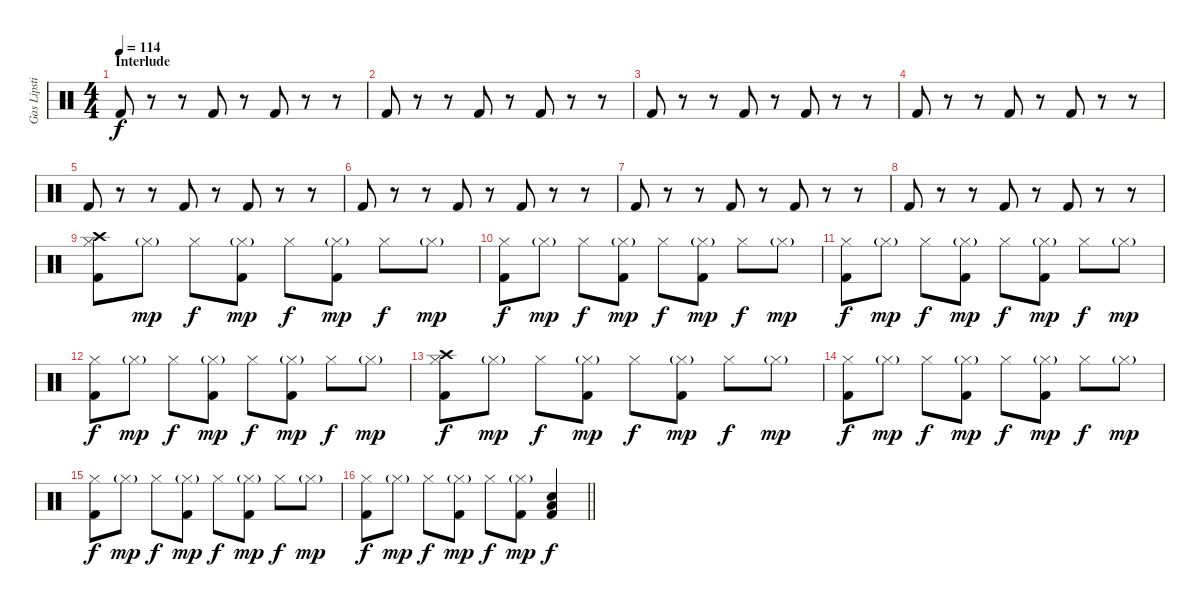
\track ("Gas Lipstick (Drums)" "Gas Lipsti") {instrument percussion}
\staff {score}
\articulation defaults
\ts (4 4)
\section ("" "Interlude")
\tempo 114
\clef neutral
\ks c "Kick (hit) 2".8{dy f}
r.8 r.8 "Kick (hit) 2".8 r.8 "Kick (hit) 2".8 r.8 r.8 |
"Kick (hit) 2".8 r.8 r.8 "Kick (hit) 2".8 r.8 "Kick (hit) 2".8 r.8 r.8 |
"Kick (hit) 2".8 r.8 r.8 "Kick (hit) 2".8 r.8 "Kick (hit) 2".8 r.8 r.8 |
"Kick (hit) 2".8 r.8 r.8 "Kick (hit) 2".8 r.8 "Kick (hit) 2".8 r.8 r.8 |
"Kick (hit) 2".8 r.8 r.8 "Kick (hit) 2".8 r.8 "Kick (hit) 2".8 r.8 r.8 |
"Kick (hit) 2".8 r.8 r.8 "Kick (hit) 2".8 r.8 "Kick (hit) 2".8 r.8 r.8 |
"Kick (hit) 2".8 r.8 r.8 "Kick (hit) 2".8 r.8 "Kick (hit) 2".8 r.8 r.8 |
"Kick (hit) 2".8 r.8 r.8 "Kick (hit) 2".8 r.8 "Kick (hit) 2".8 r.8 r.8 |
("Crash high (hit)" "Hi-Hat (closed)" "Kick (hit) 2").8 "Hi-Hat (closed)"{g}.8{dy mp} "Hi-Hat (closed)".8{dy f} ("Hi-Hat (closed)"{g} "Kick (hit) 2").8{dy mp} "Hi-Hat (closed)".8{dy f} ("Hi-Hat (closed)"{g} "Kick (hit) 2").8{dy mp} "Hi-Hat (closed)".8{dy f} "Hi-Hat (closed)"{g}.8{dy mp} |
("Hi-Hat (closed)" "Kick (hit) 2").8{dy f} "Hi-Hat (closed)"{g}.8{dy mp} "Hi-Hat (closed)".8{dy f} ("Hi-Hat (closed)"{g} "Kick (hit) 2").8{dy mp} "Hi-Hat (closed)".8{dy f} ("Hi-Hat (closed)"{g} "Kick (hit) 2").8{dy mp} "Hi-Hat (closed)".8{dy f} "Hi-Hat (closed)"{g}.8{dy mp} |
("Hi-Hat (closed)" "Kick (hit) 2").8{dy f} "Hi-Hat (closed)"{g}.8{dy mp} "Hi-Hat (closed)".8{dy f} ("Hi-Hat (closed)"{g} "Kick (hit) 2").8{dy mp} "Hi-Hat (closed)".8{dy f} ("Hi-Hat (closed)"{g} "Kick (hit) 2").8{dy mp} "Hi-Hat (closed)".8{dy f} "Hi-Hat (closed)"{g}.8{dy mp} |
("Hi-Hat (closed)" "Kick (hit) 2").8{dy f} "Hi-Hat (closed)"{g}.8{dy mp} "Hi-Hat (closed)".8{dy f} ("Hi-Hat (closed)"{g} "Kick (hit) 2").8{dy mp} "Hi-Hat (closed)".8{dy f} ("Hi-Hat (closed)"{g} "Kick (hit) 2").8{dy mp} "Hi-Hat (closed)".8{dy f} "Hi-Hat (closed)"{g}.8{dy mp} |
("Crash high (hit)" "Hi-Hat (closed)" "Kick (hit) 2").8{dy f} "Hi-Hat (closed)"{g}.8{dy mp} "Hi-Hat (closed)".8{dy f} ("Hi-Hat (closed)"{g} "Kick (hit) 2").8{dy mp} "Hi-Hat (closed)".8{dy f} ("Hi-Hat (closed)"{g} "Kick (hit) 2").8{dy mp} "Hi-Hat (closed)".8{dy f} "Hi-Hat (closed)"{g}.8{dy mp} |
("Hi-Hat (closed)" "Kick (hit) 2").8{dy f} "Hi-Hat (closed)"{g}.8{dy mp} "Hi-Hat (closed)".8{dy f} ("Hi-Hat (closed)"{g} "Kick (hit) 2").8{dy mp} "Hi-Hat (closed)".8{dy f} ("Hi-Hat (closed)"{g} "Kick (hit) 2").8{dy mp} "Hi-Hat (closed)".8{dy f} "Hi-Hat (closed)"{g}.8{dy mp} |
("Hi-Hat (closed)" "Kick (hit) 2").8{dy f} "Hi-Hat (closed)"{g}.8{dy mp} "Hi-Hat (closed)".8{dy f} ("Hi-Hat (closed)"{g} "Kick (hit) 2").8{dy mp} "Hi-Hat (closed)".8{dy f} ("Hi-Hat (closed)"{g} "Kick (hit) 2").8{dy mp} "Hi-Hat (closed)".8{dy f} "Hi-Hat (closed)"{g}.8{dy mp} |
\barLineRight lightlight
("Hi-Hat (closed)" "Kick (hit) 2").8{dy f} "Hi-Hat (closed)"{g}.8{dy mp} "Hi-Hat (closed)".8{dy f} ("Hi-Hat (closed)"{g} "Kick (hit) 2").8{dy mp} "Hi-Hat (closed)".8{dy f} ("Hi-Hat (closed)"{g} "Kick (hit) 2").8{dy mp} ("Low Floor Tom (hit)" "Snare (hit) 2" "Kick (hit) 2").4{dy f}
